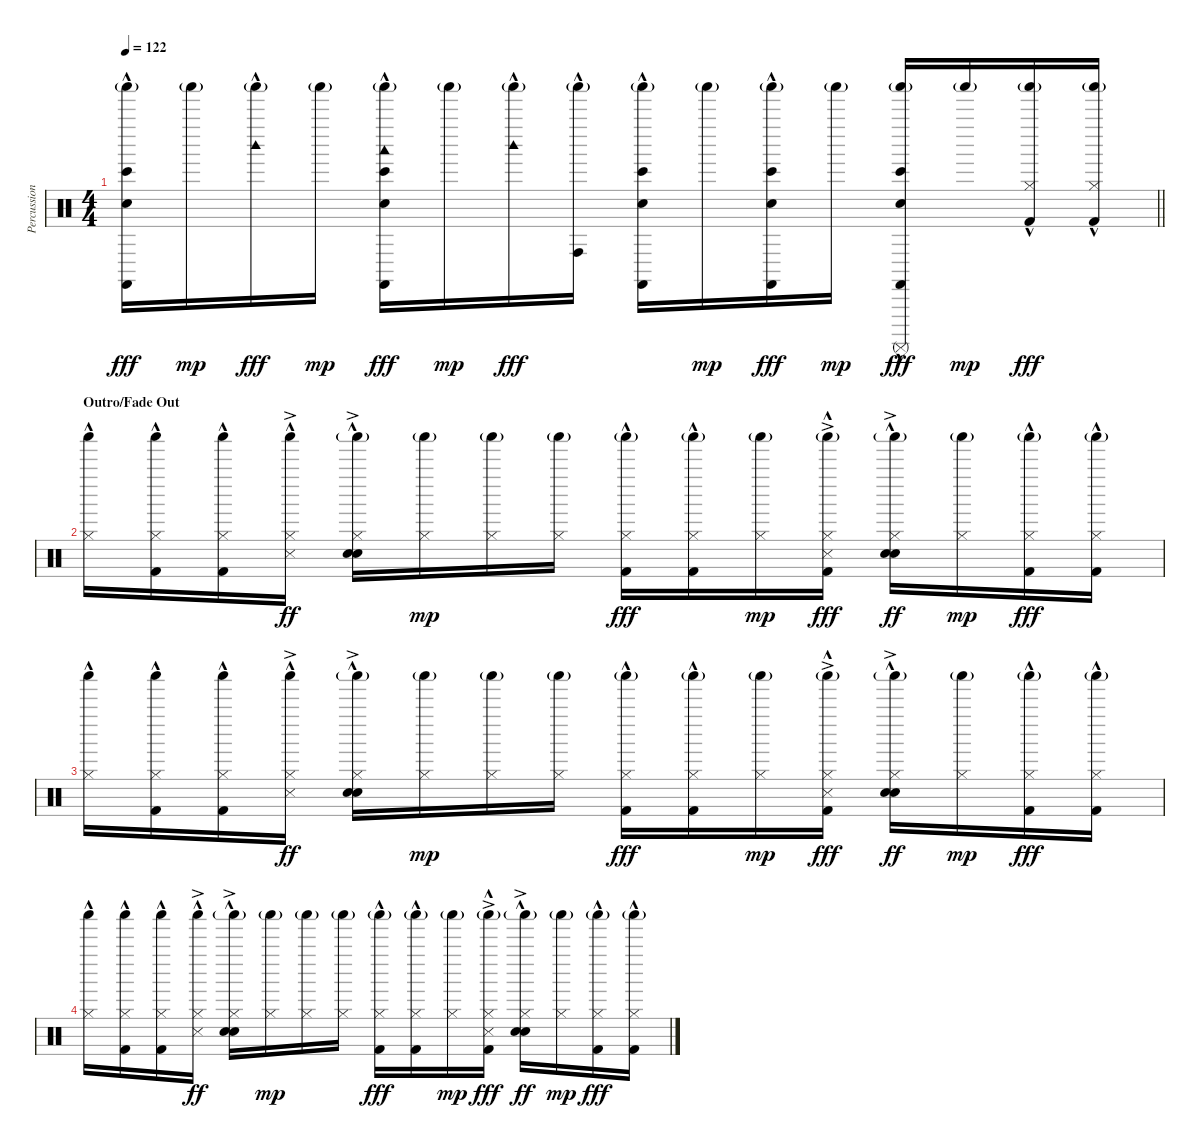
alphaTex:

\track ("Percussion" "Percussion") {instrument percussion}
\staff {score}
\articulation defaults
\ts (4 4)
\tempo 122
\clef neutral
\barLineRight lightlight
\ks c
("Bongo High (hit)"{hac} "Castanets (hit)"{hac} "Shaker (hit)"{g} "Hand Clap (hit)"{hac}).16{dy fff} "Shaker (hit)"{g}.16{dy mp} ("Shaker (hit)"{g} "Woodblock high (hit)"{hac}).16{dy fff} "Shaker (hit)"{g}.16{dy mp} ("Bongo High (hit)"{hac} "Castanets (hit)"{hac} "Shaker (hit)"{g} "Hand Clap (hit)"{hac} "Woodblock low (hit)"{hac}).16{dy fff} "Shaker (hit)"{g}.16{dy mp} ("Shaker (hit)"{g} "Woodblock high (hit)"{hac}).16{dy fff} ("Shaker (hit)"{g} "Conga high (hit)"{hac}).16 ("Bongo High (hit)"{hac} "Castanets (hit)"{hac} "Shaker (hit)"{g} "Hand Clap (hit)"{hac}).16 "Shaker (hit)"{g}.16{dy mp} ("Bongo High (hit)"{hac} "Castanets (hit)"{hac} "Shaker (hit)"{g} "Hand Clap (hit)"{hac}).16{dy fff} "Shaker (hit)"{g}.16{dy mp} ("Bongo High (hit)"{hac} "Castanets (hit)"{hac} "Shaker (hit)"{g} "Hand Clap (hit)"{hac} "Surdo (mute)"{hac}).16{dy fff} "Shaker (hit)"{g}.16{dy mp} ("Shaker (hit)"{g} "Hi-Hat (closed)" "Kick (hit) 2"{hac}).16{dy fff} ("Shaker (hit)"{g} "Hi-Hat (closed)" "Kick (hit) 2"{hac}).16 |
\section ("" "Outro/Fade Out")
("Shaker (hit)" "Hi-Hat (closed)"{hac}).16 ("Shaker (hit)" "Hi-Hat (closed)"{hac} "Kick (hit) 2"{hac}).16 ("Shaker (hit)" "Hi-Hat (closed)"{hac} "Kick (hit) 2"{hac}).16 ("Shaker (hit)" "Hi-Hat (closed)"{hac} "Snare (side stick) 3"{ac}).16{dy ff} ("Shaker (hit)"{g} "Hi-Hat (closed)" "Hand Clap (hit)"{hac} "Snare (hit) 2"{ac}).16 ("Shaker (hit)"{g} "Hi-Hat (closed)").16{dy mp} ("Shaker (hit)"{g} "Hi-Hat (closed)").16 ("Shaker (hit)"{g} "Hi-Hat (closed)").16 ("Shaker (hit)"{g} "Hi-Hat (closed)" "Kick (hit) 2"{hac}).16{dy fff} ("Shaker (hit)"{g} "Hi-Hat (closed)" "Kick (hit) 2"{hac}).16 ("Shaker (hit)"{g} "Hi-Hat (closed)").16{dy mp} ("Shaker (hit)"{g} "Hi-Hat (closed)" "Snare (side stick) 3"{ac} "Kick (hit) 2"{hac}).16{dy fff} ("Shaker (hit)"{g} "Hi-Hat (closed)" "Hand Clap (hit)"{hac} "Snare (hit) 2"{ac}).16{dy ff} ("Shaker (hit)"{g} "Hi-Hat (closed)").16{dy mp} ("Shaker (hit)"{g} "Hi-Hat (closed)" "Kick (hit) 2"{hac}).16{dy fff} ("Shaker (hit)"{g} "Hi-Hat (closed)" "Kick (hit) 2"{hac}).16 |
("Shaker (hit)" "Hi-Hat (closed)"{hac}).16 ("Shaker (hit)" "Hi-Hat (closed)"{hac} "Kick (hit) 2"{hac}).16 ("Shaker (hit)" "Hi-Hat (closed)"{hac} "Kick (hit) 2"{hac}).16 ("Shaker (hit)" "Hi-Hat (closed)"{hac} "Snare (side stick) 3"{ac}).16{dy ff} ("Shaker (hit)"{g} "Hi-Hat (closed)" "Hand Clap (hit)"{hac} "Snare (hit) 2"{ac}).16 ("Shaker (hit)"{g} "Hi-Hat (closed)").16{dy mp} ("Shaker (hit)"{g} "Hi-Hat (closed)").16 ("Shaker (hit)"{g} "Hi-Hat (closed)").16 ("Shaker (hit)"{g} "Hi-Hat (closed)" "Kick (hit) 2"{hac}).16{dy fff} ("Shaker (hit)"{g} "Hi-Hat (closed)" "Kick (hit) 2"{hac}).16 ("Shaker (hit)"{g} "Hi-Hat (closed)").16{dy mp} ("Shaker (hit)"{g} "Hi-Hat (closed)" "Snare (side stick) 3"{ac} "Kick (hit) 2"{hac}).16{dy fff} ("Shaker (hit)"{g} "Hi-Hat (closed)" "Hand Clap (hit)"{hac} "Snare (hit) 2"{ac}).16{dy ff} ("Shaker (hit)"{g} "Hi-Hat (closed)").16{dy mp} ("Shaker (hit)"{g} "Hi-Hat (closed)" "Kick (hit) 2"{hac}).16{dy fff} ("Shaker (hit)"{g} "Hi-Hat (closed)" "Kick (hit) 2"{hac}).16 |
("Shaker (hit)" "Hi-Hat (closed)"{hac}).16 ("Shaker (hit)" "Hi-Hat (closed)"{hac} "Kick (hit) 2"{hac}).16 ("Shaker (hit)" "Hi-Hat (closed)"{hac} "Kick (hit) 2"{hac}).16 ("Shaker (hit)" "Hi-Hat (closed)"{hac} "Snare (side stick) 3"{ac}).16{dy ff} ("Shaker (hit)"{g} "Hi-Hat (closed)" "Hand Clap (hit)"{hac} "Snare (hit) 2"{ac}).16 ("Shaker (hit)"{g} "Hi-Hat (closed)").16{dy mp} ("Shaker (hit)"{g} "Hi-Hat (closed)").16 ("Shaker (hit)"{g} "Hi-Hat (closed)").16 ("Shaker (hit)"{g} "Hi-Hat (closed)" "Kick (hit) 2"{hac}).16{dy fff} ("Shaker (hit)"{g} "Hi-Hat (closed)" "Kick (hit) 2"{hac}).16 ("Shaker (hit)"{g} "Hi-Hat (closed)").16{dy mp} ("Shaker (hit)"{g} "Hi-Hat (closed)" "Snare (side stick) 3"{ac} "Kick (hit) 2"{hac}).16{dy fff} ("Shaker (hit)"{g} "Hi-Hat (closed)" "Hand Clap (hit)"{hac} "Snare (hit) 2"{ac}).16{dy ff} ("Shaker (hit)"{g} "Hi-Hat (closed)").16{dy mp} ("Shaker (hit)"{g} "Hi-Hat (closed)" "Kick (hit) 2"{hac}).16{dy fff} ("Shaker (hit)"{g} "Hi-Hat (closed)" "Kick (hit) 2"{hac}).16
